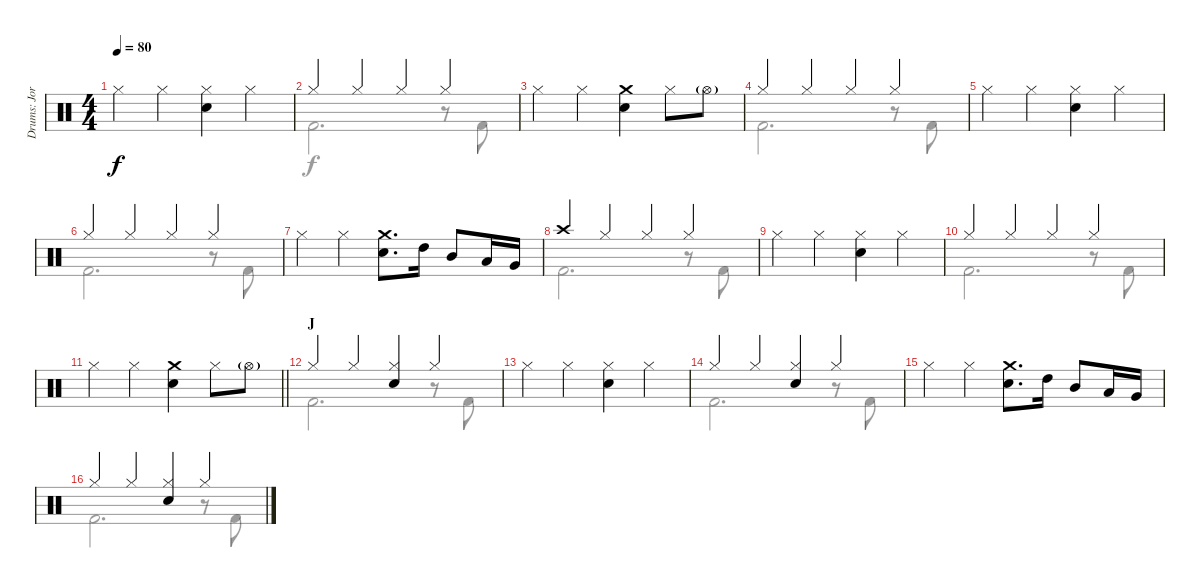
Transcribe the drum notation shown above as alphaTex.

\track ("Drums: Jorg" "Drums: Jor") {instrument percussion}
\staff {score}
\articulation defaults
\voice
\ts (4 4)
\tempo 80
\clef neutral
\ks c "Hi-Hat (closed)".4{dy f} "Hi-Hat (closed)".4
("Hi-Hat (closed)" "Snare (hit) 2").4 "Hi-Hat (closed)".4 |
"Hi-Hat (closed)".4 "Hi-Hat (closed)".4 "Hi-Hat (closed)".4 "Hi-Hat (closed)".4 |
"Hi-Hat (closed)".4 "Hi-Hat (closed)".4 ("Crash medium (hit)" "Snare (hit) 2").4 "Hi-Hat (closed)".8 "Hi-Hat (open)"{g}.8 |
"Hi-Hat (closed)".4 "Hi-Hat (closed)".4 "Hi-Hat (closed)".4 "Hi-Hat (closed)".4 |
"Hi-Hat (closed)".4 "Hi-Hat (closed)".4 ("Hi-Hat (closed)" "Snare (hit) 2").4 "Hi-Hat (closed)".4 |
"Hi-Hat (closed)".4 "Hi-Hat (closed)".4 "Hi-Hat (closed)".4 "Hi-Hat (closed)".4 |
"Hi-Hat (closed)".4 "Hi-Hat (closed)".4 ("Crash medium (hit)" "Snare (hit) 2").8{d} "High Tom (hit)".16 "Mid Tom (hit)".8 "Low Tom (hit)".16 "Very Low Tom (hit)".16 |
"Crash high (hit)".4 "Hi-Hat (closed)".4 "Hi-Hat (closed)".4 "Hi-Hat (closed)".4 |
"Hi-Hat (closed)".4 "Hi-Hat (closed)".4 ("Hi-Hat (closed)" "Snare (hit) 2").4 "Hi-Hat (closed)".4 |
"Hi-Hat (closed)".4 "Hi-Hat (closed)".4 "Hi-Hat (closed)".4 "Hi-Hat (closed)".4 |
\barLineRight lightlight "Hi-Hat (closed)".4 "Hi-Hat (closed)".4
("Crash medium (hit)" "Snare (hit) 2").4 "Hi-Hat (closed)".8 "Hi-Hat (open)"{g}.8 |
\section ("" "J")
"Hi-Hat (closed)".4 "Hi-Hat (closed)".4 ("Hi-Hat (closed)" "Snare (hit) 2").4 "Hi-Hat (closed)".4 |
"Hi-Hat (closed)".4 "Hi-Hat (closed)".4 ("Hi-Hat (closed)" "Snare (hit) 2").4 "Hi-Hat (closed)".4 |
"Hi-Hat (closed)".4 "Hi-Hat (closed)".4 ("Hi-Hat (closed)" "Snare (hit) 2").4 "Hi-Hat (closed)".4 |
"Hi-Hat (closed)".4 "Hi-Hat (closed)".4 ("Crash medium (hit)" "Snare (hit) 2").8{d} "High Tom (hit)".16 "Mid Tom (hit)".8 "Low Tom (hit)".16 "Very Low Tom (hit)".16 |
"Hi-Hat (closed)".4 "Hi-Hat (closed)".4 ("Hi-Hat (closed)" "Snare (hit) 2").4 "Hi-Hat (closed)".4
\voice
\clef neutral
\ottava regular
\simile none
\ks c
|
"Kick (hit) 2".2{d} r.8 "Kick (hit) 2".8 |
|
"Kick (hit) 2".2{d} r.8 "Kick (hit) 2".8 |
|
"Kick (hit) 2".2{d} r.8 "Kick (hit) 2".8 |
|
"Kick (hit) 2".2{d} r.8 "Kick (hit) 2".8 |
|
"Kick (hit) 2".2{d} r.8 "Kick (hit) 2".8 |
\barLineRight lightlight
|
"Kick (hit) 2".2{d} r.8 "Kick (hit) 2".8 |
|
"Kick (hit) 2".2{d} r.8 "Kick (hit) 2".8 |
|
"Kick (hit) 2".2{d} r.8 "Kick (hit) 2".8
